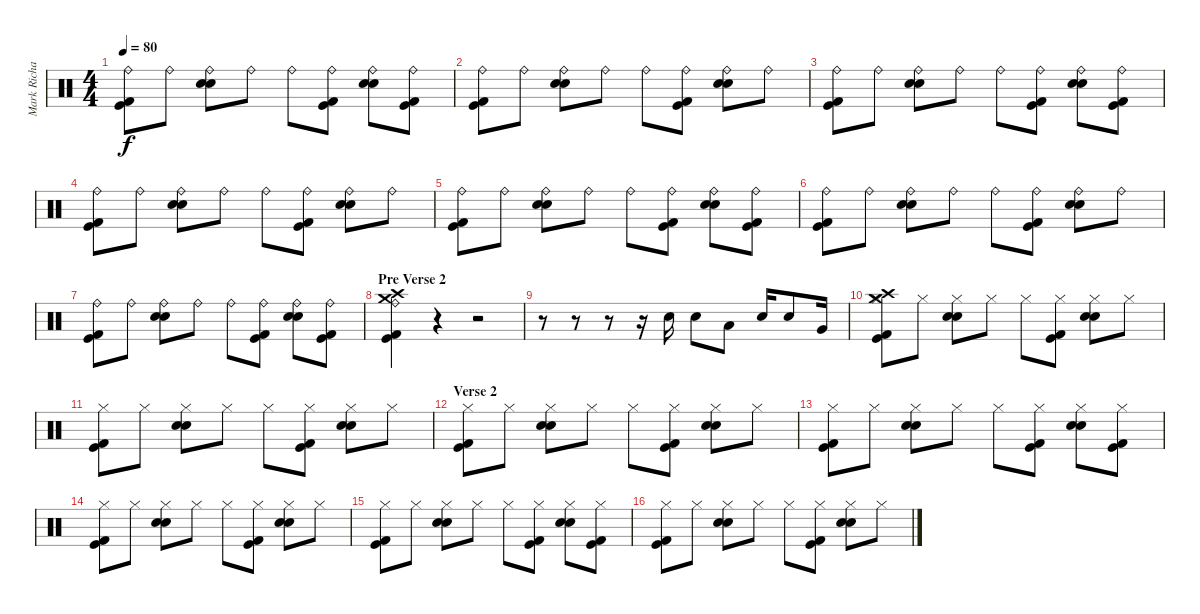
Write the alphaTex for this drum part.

\track ("Mark Richardson (Drums)" "Mark Richa") {instrument percussion}
\staff {score}
\articulation defaults
\ts (4 4)
\tempo 80
\clef neutral
\ks c
("Kick (hit) 2" "Kick (hit)" "Ride (bell)").8{dy f} "Ride (bell)".8 ("Electric Snare (hit)" "Snare (hit) 2" "Ride (bell)").8 "Ride (bell)".8 "Ride (bell)".8 ("Kick (hit) 2" "Kick (hit)" "Ride (bell)").8 ("Electric Snare (hit)" "Snare (hit) 2" "Ride (bell)").8 ("Kick (hit) 2" "Kick (hit)" "Ride (bell)").8 |
("Kick (hit) 2" "Kick (hit)" "Ride (bell)").8 "Ride (bell)".8 ("Electric Snare (hit)" "Snare (hit) 2" "Ride (bell)").8 "Ride (bell)".8 "Ride (bell)".8 ("Kick (hit) 2" "Kick (hit)" "Ride (bell)").8 ("Electric Snare (hit)" "Snare (hit) 2" "Ride (bell)").8 "Ride (bell)".8 |
("Kick (hit) 2" "Kick (hit)" "Ride (bell)").8 "Ride (bell)".8 ("Electric Snare (hit)" "Snare (hit) 2" "Ride (bell)").8 "Ride (bell)".8 "Ride (bell)".8 ("Kick (hit) 2" "Kick (hit)" "Ride (bell)").8 ("Electric Snare (hit)" "Snare (hit) 2" "Ride (bell)").8 ("Kick (hit) 2" "Kick (hit)" "Ride (bell)").8 |
("Kick (hit) 2" "Kick (hit)" "Ride (bell)").8 "Ride (bell)".8 ("Electric Snare (hit)" "Snare (hit) 2" "Ride (bell)").8 "Ride (bell)".8 "Ride (bell)".8 ("Kick (hit) 2" "Kick (hit)" "Ride (bell)").8 ("Electric Snare (hit)" "Snare (hit) 2" "Ride (bell)").8 "Ride (bell)".8 |
("Kick (hit) 2" "Kick (hit)" "Ride (bell)").8 "Ride (bell)".8 ("Electric Snare (hit)" "Snare (hit) 2" "Ride (bell)").8 "Ride (bell)".8 "Ride (bell)".8 ("Kick (hit) 2" "Kick (hit)" "Ride (bell)").8 ("Electric Snare (hit)" "Snare (hit) 2" "Ride (bell)").8 ("Kick (hit) 2" "Kick (hit)" "Ride (bell)").8 |
("Kick (hit) 2" "Kick (hit)" "Ride (bell)").8 "Ride (bell)".8 ("Electric Snare (hit)" "Snare (hit) 2" "Ride (bell)").8 "Ride (bell)".8 "Ride (bell)".8 ("Kick (hit) 2" "Kick (hit)" "Ride (bell)").8 ("Electric Snare (hit)" "Snare (hit) 2" "Ride (bell)").8 "Ride (bell)".8 |
("Kick (hit) 2" "Kick (hit)" "Ride (bell)").8 "Ride (bell)".8 ("Electric Snare (hit)" "Snare (hit) 2" "Ride (bell)").8 "Ride (bell)".8 "Ride (bell)".8 ("Kick (hit) 2" "Kick (hit)" "Ride (bell)").8 ("Electric Snare (hit)" "Snare (hit) 2" "Ride (bell)").8 ("Kick (hit) 2" "Kick (hit)" "Ride (bell)").8 |
\section ("" "Pre Verse 2")
("Kick (hit) 2" "Kick (hit)" "Crash high (hit)" "Crash medium (hit)" "Ride (bell)").4 r.4 r.2 |
r.8 r.8 r.8 r.16 "Snare (hit) 2".16 "Snare (hit) 2".8 "Low Tom (hit)".8 "Snare (hit) 2".16 "Snare (hit) 2".8 "Very Low Tom (hit)".16 |
("Kick (hit) 2" "Kick (hit)" "Hi-Hat (closed)" "Crash high (hit)" "Crash medium (hit)").8 "Hi-Hat (closed)".8 ("Electric Snare (hit)" "Snare (hit) 2" "Hi-Hat (closed)").8 "Hi-Hat (closed)".8 "Hi-Hat (closed)".8 ("Kick (hit) 2" "Kick (hit)" "Hi-Hat (closed)").8 ("Electric Snare (hit)" "Snare (hit) 2" "Hi-Hat (closed)").8 "Hi-Hat (closed)".8 |
("Kick (hit) 2" "Kick (hit)" "Hi-Hat (closed)").8 "Hi-Hat (closed)".8 ("Electric Snare (hit)" "Snare (hit) 2" "Hi-Hat (closed)").8 "Hi-Hat (closed)".8 "Hi-Hat (closed)".8 ("Kick (hit) 2" "Kick (hit)" "Hi-Hat (closed)").8 ("Electric Snare (hit)" "Snare (hit) 2" "Hi-Hat (closed)").8 "Hi-Hat (closed)".8 |
\section ("" "Verse 2")
("Kick (hit) 2" "Kick (hit)" "Hi-Hat (closed)").8 "Hi-Hat (closed)".8 ("Electric Snare (hit)" "Snare (hit) 2" "Hi-Hat (closed)").8 "Hi-Hat (closed)".8 "Hi-Hat (closed)".8 ("Kick (hit) 2" "Kick (hit)" "Hi-Hat (closed)").8 ("Electric Snare (hit)" "Snare (hit) 2" "Hi-Hat (closed)").8 "Hi-Hat (closed)".8 |
("Kick (hit) 2" "Kick (hit)" "Hi-Hat (closed)").8 "Hi-Hat (closed)".8 ("Electric Snare (hit)" "Snare (hit) 2" "Hi-Hat (closed)").8 "Hi-Hat (closed)".8 "Hi-Hat (closed)".8 ("Kick (hit) 2" "Kick (hit)" "Hi-Hat (closed)").8 ("Electric Snare (hit)" "Snare (hit) 2" "Hi-Hat (closed)").8 ("Kick (hit) 2" "Kick (hit)" "Hi-Hat (closed)").8 |
("Kick (hit) 2" "Kick (hit)" "Hi-Hat (closed)").8 "Hi-Hat (closed)".8 ("Electric Snare (hit)" "Snare (hit) 2" "Hi-Hat (closed)").8 "Hi-Hat (closed)".8 "Hi-Hat (closed)".8 ("Kick (hit) 2" "Kick (hit)" "Hi-Hat (closed)").8 ("Electric Snare (hit)" "Snare (hit) 2" "Hi-Hat (closed)").8 "Hi-Hat (closed)".8 |
("Kick (hit) 2" "Kick (hit)" "Hi-Hat (closed)").8 "Hi-Hat (closed)".8 ("Electric Snare (hit)" "Snare (hit) 2" "Hi-Hat (closed)").8 "Hi-Hat (closed)".8 "Hi-Hat (closed)".8 ("Kick (hit) 2" "Kick (hit)" "Hi-Hat (closed)").8 ("Electric Snare (hit)" "Snare (hit) 2" "Hi-Hat (closed)").8 ("Kick (hit) 2" "Kick (hit)" "Hi-Hat (closed)").8 |
("Kick (hit) 2" "Kick (hit)" "Hi-Hat (closed)").8 "Hi-Hat (closed)".8 ("Electric Snare (hit)" "Snare (hit) 2" "Hi-Hat (closed)").8 "Hi-Hat (closed)".8 "Hi-Hat (closed)".8 ("Kick (hit) 2" "Kick (hit)" "Hi-Hat (closed)").8 ("Electric Snare (hit)" "Snare (hit) 2" "Hi-Hat (closed)").8 "Hi-Hat (closed)".8
